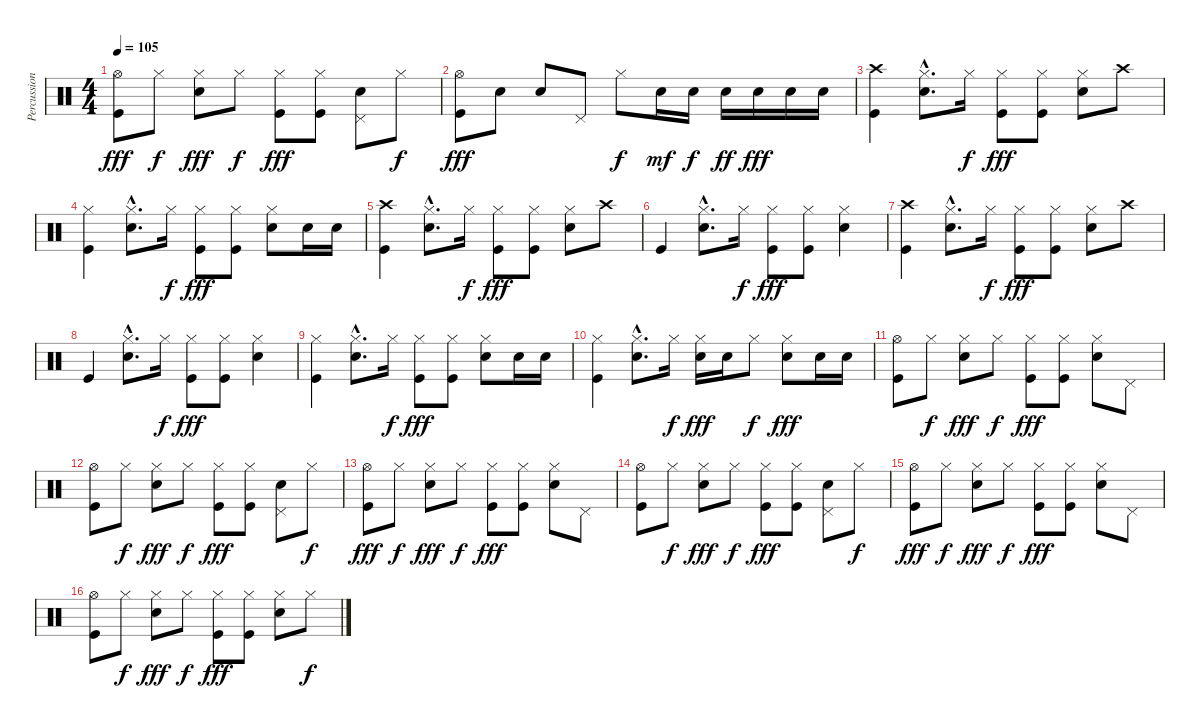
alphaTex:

\track ("Percussion" "Percussion") {instrument percussion}
\staff {score}
\articulation defaults
\ts (4 4)
\tempo 105
\clef neutral
\ks c
("Hi-Hat (open)" "Kick (hit)").8{dy fff} "Hi-Hat (closed)".8{dy f} ("Hi-Hat (closed)" "Electric Snare (hit)").8{dy fff} "Hi-Hat (closed)".8{dy f} ("Hi-Hat (closed)" "Kick (hit)").8{dy fff} ("Hi-Hat (closed)" "Kick (hit)").8 ("Pedal Hi-Hat (hit)" "Electric Snare (hit)").8 "Hi-Hat (closed)".8{dy f} |
("Hi-Hat (open)" "Kick (hit)").8{dy fff} "Electric Snare (hit)".8 "Electric Snare (hit)".8 "Pedal Hi-Hat (hit)".8 "Hi-Hat (closed)".8{dy f} "Electric Snare (hit)".16{dy mf} "Electric Snare (hit)".16{dy f} "Electric Snare (hit)".16{dy ff} "Electric Snare (hit)".16{dy fff} "Electric Snare (hit)".16 "Electric Snare (hit)".16 |
("Crash high (hit)" "Kick (hit)").4 ("Hi-Hat (closed)"{hac} "Electric Snare (hit)"{hac}).8{d} "Hi-Hat (closed)".16{dy f} ("Hi-Hat (closed)" "Kick (hit)").8{dy fff} ("Hi-Hat (closed)" "Kick (hit)").8 ("Hi-Hat (closed)" "Electric Snare (hit)").8 "Crash high (hit)".8 |
("Hi-Hat (closed)" "Kick (hit)").4 ("Hi-Hat (closed)"{hac} "Electric Snare (hit)"{hac}).8{d} "Hi-Hat (closed)".16{dy f} ("Hi-Hat (closed)" "Kick (hit)").8{dy fff} ("Hi-Hat (closed)" "Kick (hit)").8 ("Hi-Hat (closed)" "Electric Snare (hit)").8 "Electric Snare (hit)".16 "Electric Snare (hit)".16 |
("Crash high (hit)" "Kick (hit)").4 ("Hi-Hat (closed)"{hac} "Electric Snare (hit)"{hac}).8{d} "Hi-Hat (closed)".16{dy f} ("Hi-Hat (closed)" "Kick (hit)").8{dy fff} ("Hi-Hat (closed)" "Kick (hit)").8 ("Hi-Hat (closed)" "Electric Snare (hit)").8 "Crash high (hit)".8 |
"Kick (hit)".4 ("Hi-Hat (closed)"{hac} "Electric Snare (hit)"{hac}).8{d} "Hi-Hat (closed)".16{dy f} ("Hi-Hat (closed)" "Kick (hit)").8{dy fff} ("Hi-Hat (closed)" "Kick (hit)").8 ("Hi-Hat (closed)" "Electric Snare (hit)").4 |
("Crash high (hit)" "Kick (hit)").4 ("Hi-Hat (closed)"{hac} "Electric Snare (hit)"{hac}).8{d} "Hi-Hat (closed)".16{dy f} ("Hi-Hat (closed)" "Kick (hit)").8{dy fff} ("Hi-Hat (closed)" "Kick (hit)").8 ("Hi-Hat (closed)" "Electric Snare (hit)").8 "Crash high (hit)".8 |
"Kick (hit)".4 ("Hi-Hat (closed)"{hac} "Electric Snare (hit)"{hac}).8{d} "Hi-Hat (closed)".16{dy f} ("Hi-Hat (closed)" "Kick (hit)").8{dy fff} ("Hi-Hat (closed)" "Kick (hit)").8 ("Hi-Hat (closed)" "Electric Snare (hit)").4 |
("Hi-Hat (closed)" "Kick (hit)").4 ("Hi-Hat (closed)"{hac} "Electric Snare (hit)"{hac}).8{d} "Hi-Hat (closed)".16{dy f} ("Hi-Hat (closed)" "Kick (hit)").8{dy fff} ("Hi-Hat (closed)" "Kick (hit)").8 ("Hi-Hat (closed)" "Electric Snare (hit)").8 "Electric Snare (hit)".16 "Electric Snare (hit)".16 |
("Hi-Hat (closed)" "Kick (hit)").4 ("Hi-Hat (closed)"{hac} "Electric Snare (hit)"{hac}).8{d} "Hi-Hat (closed)".16{dy f} ("Hi-Hat (closed)" "Electric Snare (hit)").16{dy fff} "Electric Snare (hit)".16 "Hi-Hat (closed)".8{dy f} ("Hi-Hat (closed)" "Electric Snare (hit)").8{dy fff} "Electric Snare (hit)".16 "Electric Snare (hit)".16 |
("Hi-Hat (open)" "Kick (hit)").8 "Hi-Hat (closed)".8{dy f} ("Hi-Hat (closed)" "Electric Snare (hit)").8{dy fff} "Hi-Hat (closed)".8{dy f} ("Hi-Hat (closed)" "Kick (hit)").8{dy fff} ("Hi-Hat (closed)" "Kick (hit)").8 ("Hi-Hat (closed)" "Electric Snare (hit)").8 "Pedal Hi-Hat (hit)".8 |
("Hi-Hat (open)" "Kick (hit)").8 "Hi-Hat (closed)".8{dy f} ("Hi-Hat (closed)" "Electric Snare (hit)").8{dy fff} "Hi-Hat (closed)".8{dy f} ("Hi-Hat (closed)" "Kick (hit)").8{dy fff} ("Hi-Hat (closed)" "Kick (hit)").8 ("Pedal Hi-Hat (hit)" "Electric Snare (hit)").8 "Hi-Hat (closed)".8{dy f} |
("Hi-Hat (open)" "Kick (hit)").8{dy fff} "Hi-Hat (closed)".8{dy f} ("Hi-Hat (closed)" "Electric Snare (hit)").8{dy fff} "Hi-Hat (closed)".8{dy f} ("Hi-Hat (closed)" "Kick (hit)").8{dy fff} ("Hi-Hat (closed)" "Kick (hit)").8 ("Hi-Hat (closed)" "Electric Snare (hit)").8 "Pedal Hi-Hat (hit)".8 |
("Hi-Hat (open)" "Kick (hit)").8 "Hi-Hat (closed)".8{dy f} ("Hi-Hat (closed)" "Electric Snare (hit)").8{dy fff} "Hi-Hat (closed)".8{dy f} ("Hi-Hat (closed)" "Kick (hit)").8{dy fff} ("Hi-Hat (closed)" "Kick (hit)").8 ("Pedal Hi-Hat (hit)" "Electric Snare (hit)").8 "Hi-Hat (closed)".8{dy f} |
("Hi-Hat (open)" "Kick (hit)").8{dy fff} "Hi-Hat (closed)".8{dy f} ("Hi-Hat (closed)" "Electric Snare (hit)").8{dy fff} "Hi-Hat (closed)".8{dy f} ("Hi-Hat (closed)" "Kick (hit)").8{dy fff} ("Hi-Hat (closed)" "Kick (hit)").8 ("Hi-Hat (closed)" "Electric Snare (hit)").8 "Pedal Hi-Hat (hit)".8 |
("Hi-Hat (open)" "Kick (hit)").8 "Hi-Hat (closed)".8{dy f} ("Hi-Hat (closed)" "Electric Snare (hit)").8{dy fff} "Hi-Hat (closed)".8{dy f} ("Hi-Hat (closed)" "Kick (hit)").8{dy fff} ("Hi-Hat (closed)" "Kick (hit)").8 ("Hi-Hat (closed)" "Electric Snare (hit)").8 "Hi-Hat (closed)".8{dy f}
